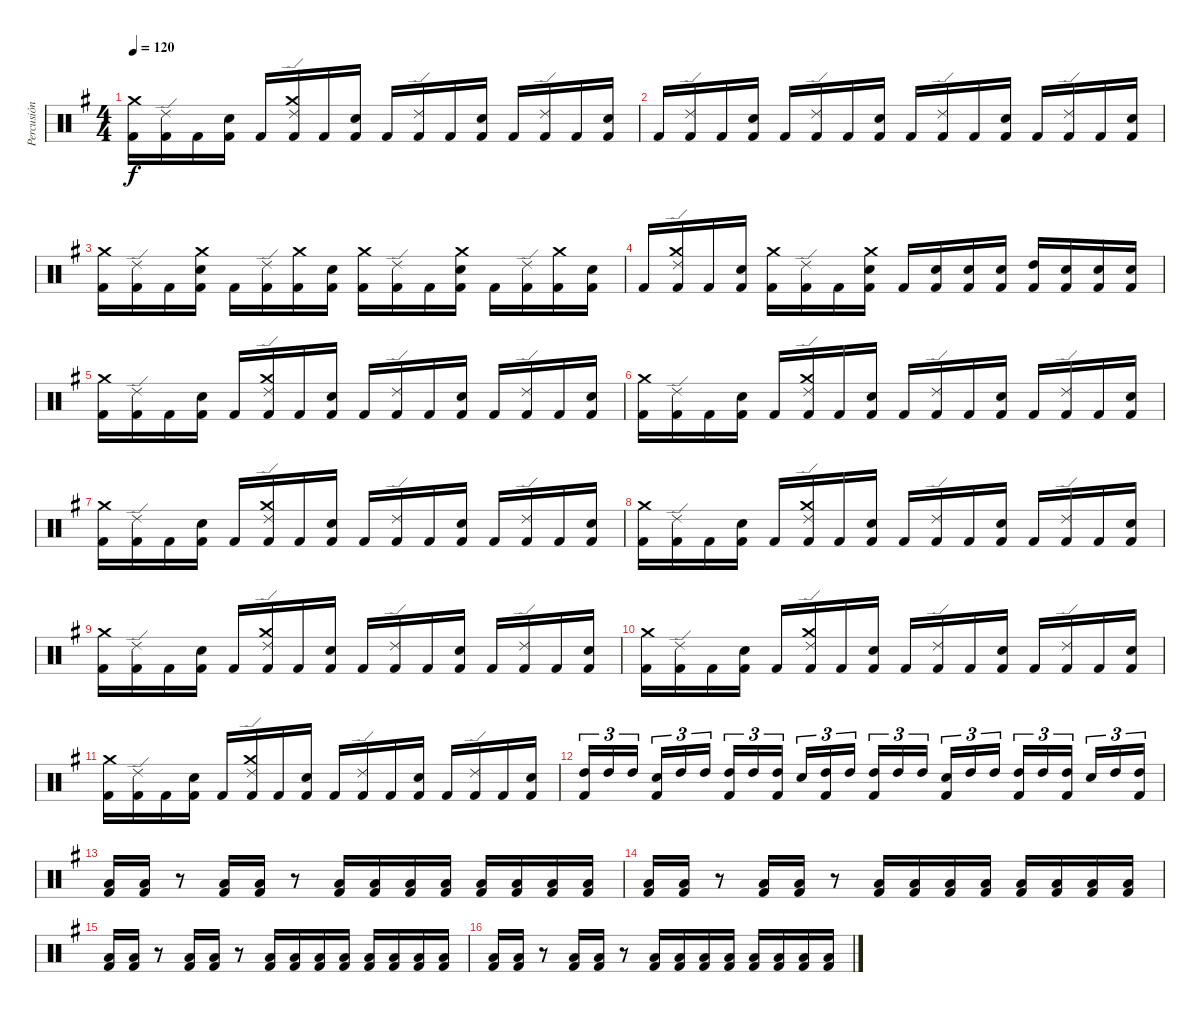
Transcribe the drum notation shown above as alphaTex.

\track ("Percusión" "Percusión") {instrument percussion}
\staff {score}
\articulation defaults
\ts (4 4)
\tempo 120
\clef neutral
\ks g
("Kick (hit) 2" "Crash medium (hit)").16{dy f} ("Kick (hit) 2" "Ride (edge) 2").16 "Kick (hit) 2".16 ("Kick (hit) 2" "Snare (hit) 2").16 "Kick (hit) 2".16 ("Kick (hit) 2" "Crash medium (hit)" "Ride (edge) 2").16 "Kick (hit) 2".16 ("Kick (hit) 2" "Snare (hit) 2").16 "Kick (hit) 2".16 ("Kick (hit) 2" "Ride (edge) 2").16 "Kick (hit) 2".16 ("Kick (hit) 2" "Snare (hit) 2").16 "Kick (hit) 2".16 ("Kick (hit) 2" "Ride (edge) 2").16 "Kick (hit) 2".16 ("Kick (hit) 2" "Snare (hit) 2").16 |
"Kick (hit) 2".16 ("Kick (hit) 2" "Ride (edge) 2").16 "Kick (hit) 2".16 ("Kick (hit) 2" "Snare (hit) 2").16 "Kick (hit) 2".16 ("Kick (hit) 2" "Ride (edge) 2").16 "Kick (hit) 2".16 ("Kick (hit) 2" "Snare (hit) 2").16 "Kick (hit) 2".16 ("Kick (hit) 2" "Ride (edge) 2").16 "Kick (hit) 2".16 ("Kick (hit) 2" "Snare (hit) 2").16 "Kick (hit) 2".16 ("Kick (hit) 2" "Ride (edge) 2").16 "Kick (hit) 2".16 ("Kick (hit) 2" "Snare (hit) 2").16 |
("Kick (hit) 2" "Crash medium (hit)").16 ("Kick (hit) 2" "Ride (edge) 2").16 "Kick (hit) 2".16 ("Kick (hit) 2" "Crash medium (hit)" "Snare (hit) 2").16 "Kick (hit) 2".16 ("Kick (hit) 2" "Ride (edge) 2").16 ("Kick (hit) 2" "Crash medium (hit)").16 ("Kick (hit) 2" "Snare (hit) 2").16 ("Kick (hit) 2" "Crash medium (hit)").16 ("Kick (hit) 2" "Ride (edge) 2").16 "Kick (hit) 2".16 ("Kick (hit) 2" "Crash medium (hit)" "Snare (hit) 2").16 "Kick (hit) 2".16 ("Kick (hit) 2" "Ride (edge) 2").16 ("Kick (hit) 2" "Crash medium (hit)").16 ("Kick (hit) 2" "Snare (hit) 2").16 |
"Kick (hit) 2".16 ("Kick (hit) 2" "Crash medium (hit)" "Ride (edge) 2").16 "Kick (hit) 2".16 ("Kick (hit) 2" "Snare (hit) 2").16 ("Kick (hit) 2" "Crash medium (hit)").16 ("Kick (hit) 2" "Ride (edge) 2").16 "Kick (hit) 2".16 ("Kick (hit) 2" "Crash medium (hit)" "Snare (hit) 2").16 "Kick (hit) 2".16 ("Kick (hit) 2" "Snare (hit) 2").16 ("Kick (hit) 2" "Snare (hit) 2").16 ("Kick (hit) 2" "Snare (hit) 2").16 ("Kick (hit) 2" "High Tom (hit)").16 ("Kick (hit) 2" "Snare (hit) 2").16 ("Kick (hit) 2" "Snare (hit) 2").16 ("Kick (hit) 2" "Snare (hit) 2").16 |
("Kick (hit) 2" "Crash medium (hit)").16 ("Kick (hit) 2" "Ride (edge) 2").16 "Kick (hit) 2".16 ("Kick (hit) 2" "Snare (hit) 2").16 "Kick (hit) 2".16 ("Kick (hit) 2" "Crash medium (hit)" "Ride (edge) 2").16 "Kick (hit) 2".16 ("Kick (hit) 2" "Snare (hit) 2").16 "Kick (hit) 2".16 ("Kick (hit) 2" "Ride (edge) 2").16 "Kick (hit) 2".16 ("Kick (hit) 2" "Snare (hit) 2").16 "Kick (hit) 2".16 ("Kick (hit) 2" "Ride (edge) 2").16 "Kick (hit) 2".16 ("Kick (hit) 2" "Snare (hit) 2").16 |
("Kick (hit) 2" "Crash medium (hit)").16 ("Kick (hit) 2" "Ride (edge) 2").16 "Kick (hit) 2".16 ("Kick (hit) 2" "Snare (hit) 2").16 "Kick (hit) 2".16 ("Kick (hit) 2" "Crash medium (hit)" "Ride (edge) 2").16 "Kick (hit) 2".16 ("Kick (hit) 2" "Snare (hit) 2").16 "Kick (hit) 2".16 ("Kick (hit) 2" "Ride (edge) 2").16 "Kick (hit) 2".16 ("Kick (hit) 2" "Snare (hit) 2").16 "Kick (hit) 2".16 ("Kick (hit) 2" "Ride (edge) 2").16 "Kick (hit) 2".16 ("Kick (hit) 2" "Snare (hit) 2").16 |
("Kick (hit) 2" "Crash medium (hit)").16 ("Kick (hit) 2" "Ride (edge) 2").16 "Kick (hit) 2".16 ("Kick (hit) 2" "Snare (hit) 2").16 "Kick (hit) 2".16 ("Kick (hit) 2" "Crash medium (hit)" "Ride (edge) 2").16 "Kick (hit) 2".16 ("Kick (hit) 2" "Snare (hit) 2").16 "Kick (hit) 2".16 ("Kick (hit) 2" "Ride (edge) 2").16 "Kick (hit) 2".16 ("Kick (hit) 2" "Snare (hit) 2").16 "Kick (hit) 2".16 ("Kick (hit) 2" "Ride (edge) 2").16 "Kick (hit) 2".16 ("Kick (hit) 2" "Snare (hit) 2").16 |
("Kick (hit) 2" "Crash medium (hit)").16 ("Kick (hit) 2" "Ride (edge) 2").16 "Kick (hit) 2".16 ("Kick (hit) 2" "Snare (hit) 2").16 "Kick (hit) 2".16 ("Kick (hit) 2" "Crash medium (hit)" "Ride (edge) 2").16 "Kick (hit) 2".16 ("Kick (hit) 2" "Snare (hit) 2").16 "Kick (hit) 2".16 ("Kick (hit) 2" "Ride (edge) 2").16 "Kick (hit) 2".16 ("Kick (hit) 2" "Snare (hit) 2").16 "Kick (hit) 2".16 ("Kick (hit) 2" "Ride (edge) 2").16 "Kick (hit) 2".16 ("Kick (hit) 2" "Snare (hit) 2").16 |
("Kick (hit) 2" "Crash medium (hit)").16 ("Kick (hit) 2" "Ride (edge) 2").16 "Kick (hit) 2".16 ("Kick (hit) 2" "Snare (hit) 2").16 "Kick (hit) 2".16 ("Kick (hit) 2" "Crash medium (hit)" "Ride (edge) 2").16 "Kick (hit) 2".16 ("Kick (hit) 2" "Snare (hit) 2").16 "Kick (hit) 2".16 ("Kick (hit) 2" "Ride (edge) 2").16 "Kick (hit) 2".16 ("Kick (hit) 2" "Snare (hit) 2").16 "Kick (hit) 2".16 ("Kick (hit) 2" "Ride (edge) 2").16 "Kick (hit) 2".16 ("Kick (hit) 2" "Snare (hit) 2").16 |
("Kick (hit) 2" "Crash medium (hit)").16 ("Kick (hit) 2" "Ride (edge) 2").16 "Kick (hit) 2".16 ("Kick (hit) 2" "Snare (hit) 2").16 "Kick (hit) 2".16 ("Kick (hit) 2" "Crash medium (hit)" "Ride (edge) 2").16 "Kick (hit) 2".16 ("Kick (hit) 2" "Snare (hit) 2").16 "Kick (hit) 2".16 ("Kick (hit) 2" "Ride (edge) 2").16 "Kick (hit) 2".16 ("Kick (hit) 2" "Snare (hit) 2").16 "Kick (hit) 2".16 ("Kick (hit) 2" "Ride (edge) 2").16 "Kick (hit) 2".16 ("Kick (hit) 2" "Snare (hit) 2").16 |
("Kick (hit) 2" "Crash medium (hit)").16 ("Kick (hit) 2" "Ride (edge) 2").16 "Kick (hit) 2".16 ("Kick (hit) 2" "Snare (hit) 2").16 "Kick (hit) 2".16 ("Kick (hit) 2" "Crash medium (hit)" "Ride (edge) 2").16 "Kick (hit) 2".16 ("Kick (hit) 2" "Snare (hit) 2").16 "Kick (hit) 2".16 ("Kick (hit) 2" "Ride (edge) 2").16 "Kick (hit) 2".16 ("Kick (hit) 2" "Snare (hit) 2").16 "Kick (hit) 2".16 ("Kick (hit) 2" "Ride (edge) 2").16 "Kick (hit) 2".16 ("Kick (hit) 2" "Snare (hit) 2").16 |
("Kick (hit) 2" "High Tom (hit)").16{tu (3 2)} "High Tom (hit)".16{tu (3 2)} "High Tom (hit)".16{tu (3 2) beam splitsecondary} ("Kick (hit) 2" "Snare (hit) 2").16{tu (3 2)} "High Tom (hit)".16{tu (3 2)} "High Tom (hit)".16{tu (3 2)} ("Kick (hit) 2" "High Tom (hit)").16{tu (3 2)} "High Tom (hit)".16{tu (3 2)} ("Kick (hit) 2" "High Tom (hit)").16{tu (3 2) beam splitsecondary} "Snare (hit) 2".16{tu (3 2)} ("Kick (hit) 2" "High Tom (hit)").16{tu (3 2)} "High Tom (hit)".16{tu (3 2)} ("Kick (hit) 2" "High Tom (hit)").16{tu (3 2)} "High Tom (hit)".16{tu (3 2)} "High Tom (hit)".16{tu (3 2) beam splitsecondary} ("Kick (hit) 2" "Snare (hit) 2").16{tu (3 2)} "High Tom (hit)".16{tu (3 2)} "High Tom (hit)".16{tu (3 2)} ("Kick (hit) 2" "High Tom (hit)").16{tu (3 2)} "High Tom (hit)".16{tu (3 2)} ("Kick (hit) 2" "High Tom (hit)").16{tu (3 2) beam splitsecondary} "Snare (hit) 2".16{tu (3 2)} "High Tom (hit)".16{tu (3 2)} ("Kick (hit) 2" "High Tom (hit)").16{tu (3 2)} |
("Kick (hit) 2" "Low Tom (hit)").16 ("Kick (hit) 2" "Low Tom (hit)").16 r.8 ("Kick (hit) 2" "Low Tom (hit)").16 ("Kick (hit) 2" "Low Tom (hit)").16 r.8 ("Kick (hit) 2" "Low Tom (hit)").16 ("Kick (hit) 2" "Low Tom (hit)").16 ("Kick (hit) 2" "Low Tom (hit)").16 ("Kick (hit) 2" "Low Tom (hit)").16 ("Kick (hit) 2" "Low Tom (hit)").16 ("Kick (hit) 2" "Low Tom (hit)").16 ("Kick (hit) 2" "Low Tom (hit)").16 ("Kick (hit) 2" "Low Tom (hit)").16 |
("Kick (hit) 2" "Low Tom (hit)").16 ("Kick (hit) 2" "Low Tom (hit)").16 r.8 ("Kick (hit) 2" "Low Tom (hit)").16 ("Kick (hit) 2" "Low Tom (hit)").16 r.8 ("Kick (hit) 2" "Low Tom (hit)").16 ("Kick (hit) 2" "Low Tom (hit)").16 ("Kick (hit) 2" "Low Tom (hit)").16 ("Kick (hit) 2" "Low Tom (hit)").16 ("Kick (hit) 2" "Low Tom (hit)").16 ("Kick (hit) 2" "Low Tom (hit)").16 ("Kick (hit) 2" "Low Tom (hit)").16 ("Kick (hit) 2" "Low Tom (hit)").16 |
("Kick (hit) 2" "Low Tom (hit)").16 ("Kick (hit) 2" "Low Tom (hit)").16 r.8 ("Kick (hit) 2" "Low Tom (hit)").16 ("Kick (hit) 2" "Low Tom (hit)").16 r.8 ("Kick (hit) 2" "Low Tom (hit)").16 ("Kick (hit) 2" "Low Tom (hit)").16 ("Kick (hit) 2" "Low Tom (hit)").16 ("Kick (hit) 2" "Low Tom (hit)").16 ("Kick (hit) 2" "Low Tom (hit)").16 ("Kick (hit) 2" "Low Tom (hit)").16 ("Kick (hit) 2" "Low Tom (hit)").16 ("Kick (hit) 2" "Low Tom (hit)").16 |
("Kick (hit) 2" "Low Tom (hit)").16 ("Kick (hit) 2" "Low Tom (hit)").16 r.8 ("Kick (hit) 2" "Low Tom (hit)").16 ("Kick (hit) 2" "Low Tom (hit)").16 r.8 ("Kick (hit) 2" "Low Tom (hit)").16 ("Kick (hit) 2" "Low Tom (hit)").16 ("Kick (hit) 2" "Low Tom (hit)").16 ("Kick (hit) 2" "Low Tom (hit)").16 ("Kick (hit) 2" "Low Tom (hit)").16 ("Kick (hit) 2" "Low Tom (hit)").16 ("Kick (hit) 2" "Low Tom (hit)").16 ("Kick (hit) 2" "Low Tom (hit)").16
